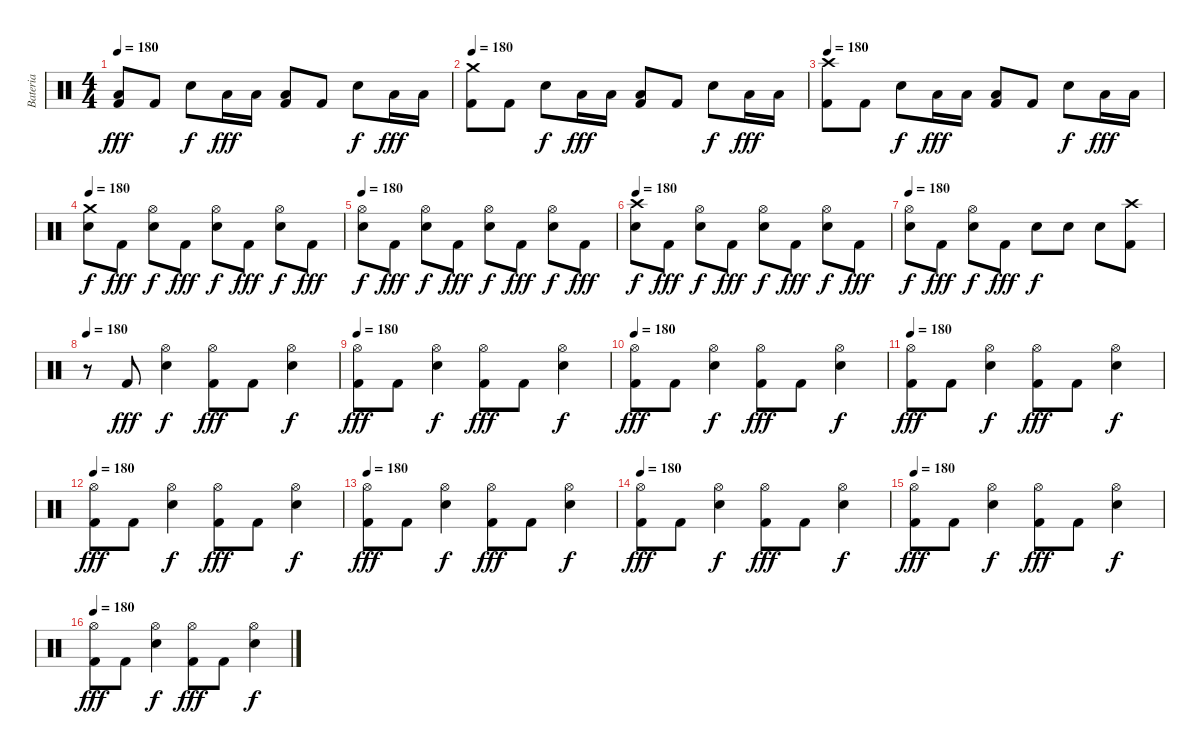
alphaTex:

\track ("Bateria" "Bateria") {instrument percussion}
\staff {score}
\articulation defaults
\ts (4 4)
\tempo 180
\clef neutral
\ks c
("Low Tom (hit)" "Kick (hit) 2").8{dy fff} "Kick (hit) 2".8 "Electric Snare (hit)".8{dy f} "Low Tom (hit)".16{dy fff} "Low Tom (hit)".16 ("Low Tom (hit)" "Kick (hit) 2").8 "Kick (hit) 2".8 "Electric Snare (hit)".8{dy f} "Low Tom (hit)".16{dy fff} "Low Tom (hit)".16 |
\tempo 180
("Crash medium (hit)" "Kick (hit) 2").8 "Kick (hit) 2".8 "Electric Snare (hit)".8{dy f} "Low Tom (hit)".16{dy fff} "Low Tom (hit)".16 ("Low Tom (hit)" "Kick (hit) 2").8 "Kick (hit) 2".8 "Electric Snare (hit)".8{dy f} "Low Tom (hit)".16{dy fff} "Low Tom (hit)".16 |
\tempo 180
("Crash high (hit)" "Kick (hit) 2").8 "Kick (hit) 2".8 "Electric Snare (hit)".8{dy f} "Low Tom (hit)".16{dy fff} "Low Tom (hit)".16 ("Low Tom (hit)" "Kick (hit) 2").8 "Kick (hit) 2".8 "Electric Snare (hit)".8{dy f} "Low Tom (hit)".16{dy fff} "Low Tom (hit)".16 |
\tempo 180
("Crash medium (hit)" "Electric Snare (hit)").8{dy f} "Kick (hit) 2".8{dy fff} ("Hi-Hat (open)" "Electric Snare (hit)").8{dy f} "Kick (hit) 2".8{dy fff} ("Hi-Hat (open)" "Electric Snare (hit)").8{dy f} "Kick (hit) 2".8{dy fff} ("Hi-Hat (open)" "Electric Snare (hit)").8{dy f} "Kick (hit) 2".8{dy fff} |
\tempo 180
("Hi-Hat (open)" "Electric Snare (hit)").8{dy f} "Kick (hit) 2".8{dy fff} ("Hi-Hat (open)" "Electric Snare (hit)").8{dy f} "Kick (hit) 2".8{dy fff} ("Hi-Hat (open)" "Electric Snare (hit)").8{dy f} "Kick (hit) 2".8{dy fff} ("Hi-Hat (open)" "Electric Snare (hit)").8{dy f} "Kick (hit) 2".8{dy fff} |
\tempo 180
("Crash high (hit)" "Electric Snare (hit)").8{dy f} "Kick (hit) 2".8{dy fff} ("Hi-Hat (open)" "Electric Snare (hit)").8{dy f} "Kick (hit) 2".8{dy fff} ("Hi-Hat (open)" "Electric Snare (hit)").8{dy f} "Kick (hit) 2".8{dy fff} ("Hi-Hat (open)" "Electric Snare (hit)").8{dy f} "Kick (hit) 2".8{dy fff} |
\tempo 180
("Hi-Hat (open)" "Electric Snare (hit)").8{dy f} "Kick (hit) 2".8{dy fff} ("Hi-Hat (open)" "Electric Snare (hit)").8{dy f} "Kick (hit) 2".8{dy fff} "Electric Snare (hit)".8{dy f} "Electric Snare (hit)".8 "Electric Snare (hit)".8 ("Crash high (hit)" "Kick (hit) 2").8 |
\tempo 180
r.8 "Kick (hit) 2".8{dy fff} ("Hi-Hat (open)" "Electric Snare (hit)").4{dy f} ("Hi-Hat (open)" "Kick (hit) 2").8{dy fff} "Kick (hit) 2".8 ("Hi-Hat (open)" "Electric Snare (hit)").4{dy f} |
\tempo 180
("Hi-Hat (open)" "Kick (hit) 2").8{dy fff} "Kick (hit) 2".8 ("Hi-Hat (open)" "Electric Snare (hit)").4{dy f} ("Hi-Hat (open)" "Kick (hit) 2").8{dy fff} "Kick (hit) 2".8 ("Hi-Hat (open)" "Electric Snare (hit)").4{dy f} |
\tempo 180
("Hi-Hat (open)" "Kick (hit) 2").8{dy fff} "Kick (hit) 2".8 ("Hi-Hat (open)" "Electric Snare (hit)").4{dy f} ("Hi-Hat (open)" "Kick (hit) 2").8{dy fff} "Kick (hit) 2".8 ("Hi-Hat (open)" "Electric Snare (hit)").4{dy f} |
\tempo 180
("Hi-Hat (open)" "Kick (hit) 2").8{dy fff} "Kick (hit) 2".8 ("Hi-Hat (open)" "Electric Snare (hit)").4{dy f} ("Hi-Hat (open)" "Kick (hit) 2").8{dy fff} "Kick (hit) 2".8 ("Hi-Hat (open)" "Electric Snare (hit)").4{dy f} |
\tempo 180
("Hi-Hat (open)" "Kick (hit) 2").8{dy fff} "Kick (hit) 2".8 ("Hi-Hat (open)" "Electric Snare (hit)").4{dy f} ("Hi-Hat (open)" "Kick (hit) 2").8{dy fff} "Kick (hit) 2".8 ("Hi-Hat (open)" "Electric Snare (hit)").4{dy f} |
\tempo 180
("Hi-Hat (open)" "Kick (hit) 2").8{dy fff} "Kick (hit) 2".8 ("Hi-Hat (open)" "Electric Snare (hit)").4{dy f} ("Hi-Hat (open)" "Kick (hit) 2").8{dy fff} "Kick (hit) 2".8 ("Hi-Hat (open)" "Electric Snare (hit)").4{dy f} |
\tempo 180
("Hi-Hat (open)" "Kick (hit) 2").8{dy fff} "Kick (hit) 2".8 ("Hi-Hat (open)" "Electric Snare (hit)").4{dy f} ("Hi-Hat (open)" "Kick (hit) 2").8{dy fff} "Kick (hit) 2".8 ("Hi-Hat (open)" "Electric Snare (hit)").4{dy f} |
\tempo 180
("Hi-Hat (open)" "Kick (hit) 2").8{dy fff} "Kick (hit) 2".8 ("Hi-Hat (open)" "Electric Snare (hit)").4{dy f} ("Hi-Hat (open)" "Kick (hit) 2").8{dy fff} "Kick (hit) 2".8 ("Hi-Hat (open)" "Electric Snare (hit)").4{dy f} |
\tempo 180
("Hi-Hat (open)" "Kick (hit) 2").8{dy fff} "Kick (hit) 2".8 ("Hi-Hat (open)" "Electric Snare (hit)").4{dy f} ("Hi-Hat (open)" "Kick (hit) 2").8{dy fff} "Kick (hit) 2".8 ("Hi-Hat (open)" "Electric Snare (hit)").4{dy f}
